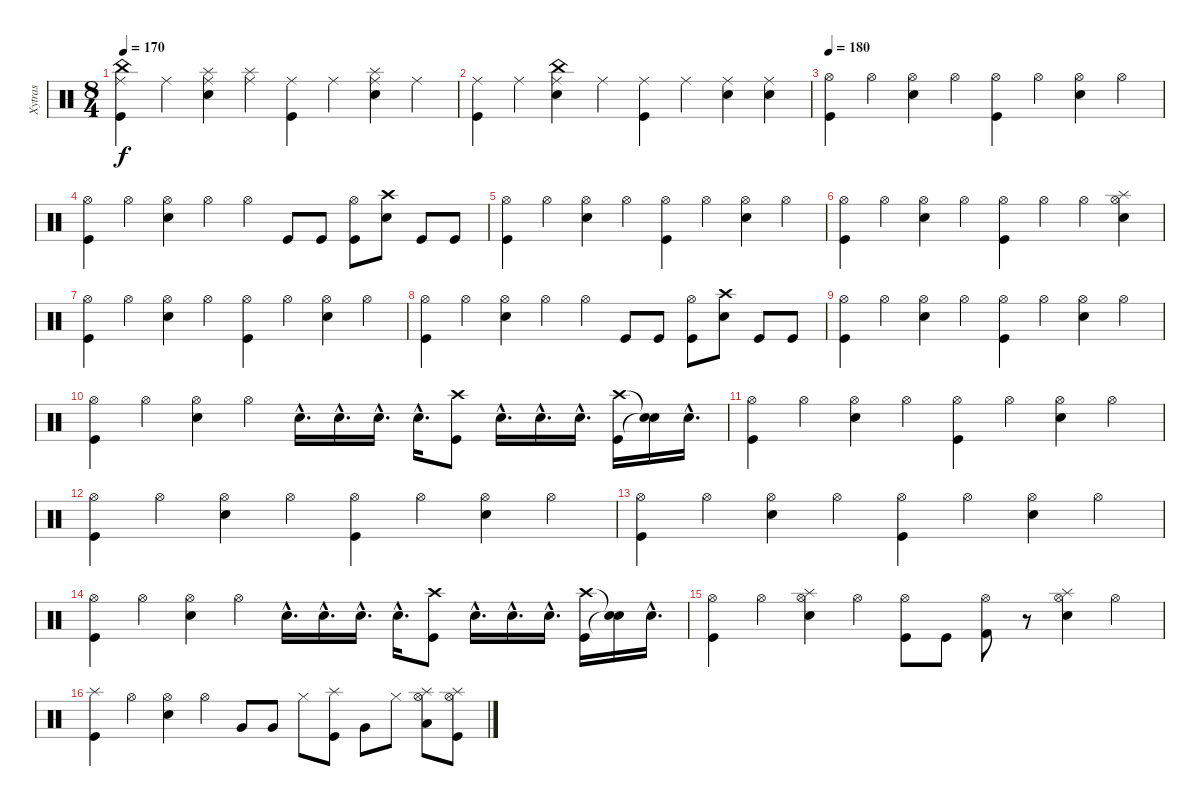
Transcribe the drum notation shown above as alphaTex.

\track ("Xytras" "Xytras") {instrument percussion}
\staff {score}
\articulation defaults
\ts (8 4)
\tempo 170
\clef neutral
\ks c
("Ride (middle)" "Kick (hit)" "China (hit)").4{dy f} "Ride (middle)".4 ("Ride (middle)" "Electric Snare (hit)" "Splash (hit)").4 ("Ride (middle)" "Splash (hit)").4 ("Ride (middle)" "Kick (hit)").4 "Ride (middle)".4 ("Ride (middle)" "Electric Snare (hit)" "Splash (hit)").4 "Ride (middle)".4 |
("Ride (middle)" "Kick (hit)").4 "Ride (middle)".4 ("Ride (middle)" "Electric Snare (hit)" "China (hit)").4 "Ride (middle)".4 ("Ride (middle)" "Kick (hit)").4 "Ride (middle)".4 ("Ride (middle)" "Electric Snare (hit)").4 ("Ride (middle)" "Electric Snare (hit)").4 |
\tempo 180
("Hi-Hat (open)" "Kick (hit)").4 "Hi-Hat (open)".4 ("Hi-Hat (open)" "Electric Snare (hit)").4 "Hi-Hat (open)".4 ("Hi-Hat (open)" "Kick (hit)").4 "Hi-Hat (open)".4 ("Hi-Hat (open)" "Electric Snare (hit)").4 "Hi-Hat (open)".4 |
("Hi-Hat (open)" "Kick (hit)").4 "Hi-Hat (open)".4 ("Hi-Hat (open)" "Electric Snare (hit)").4 "Hi-Hat (open)".4 "Hi-Hat (open)".4 "Kick (hit)".8 "Kick (hit)".8 ("Kick (hit)" "Hi-Hat (open)").8 ("Electric Snare (hit)" "Crash high (hit)").8 "Kick (hit)".8 "Kick (hit)".8 |
("Hi-Hat (open)" "Kick (hit)").4 "Hi-Hat (open)".4 ("Hi-Hat (open)" "Electric Snare (hit)").4 "Hi-Hat (open)".4 ("Hi-Hat (open)" "Kick (hit)").4 "Hi-Hat (open)".4 ("Hi-Hat (open)" "Electric Snare (hit)").4 "Hi-Hat (open)".4 |
("Hi-Hat (open)" "Kick (hit)").4 "Hi-Hat (open)".4 ("Hi-Hat (open)" "Electric Snare (hit)").4 "Hi-Hat (open)".4 ("Hi-Hat (open)" "Kick (hit)").4 "Hi-Hat (open)".4 "Hi-Hat (open)".4 ("Hi-Hat (open)" "Splash (hit)" "Electric Snare (hit)").4 |
("Hi-Hat (open)" "Kick (hit)").4 "Hi-Hat (open)".4 ("Hi-Hat (open)" "Electric Snare (hit)").4 "Hi-Hat (open)".4 ("Hi-Hat (open)" "Kick (hit)").4 "Hi-Hat (open)".4 ("Hi-Hat (open)" "Electric Snare (hit)").4 "Hi-Hat (open)".4 |
("Hi-Hat (open)" "Kick (hit)").4 "Hi-Hat (open)".4 ("Hi-Hat (open)" "Electric Snare (hit)").4 "Hi-Hat (open)".4 "Hi-Hat (open)".4 "Kick (hit)".8 "Kick (hit)".8 ("Kick (hit)" "Hi-Hat (open)").8 ("Electric Snare (hit)" "Crash high (hit)").8 "Kick (hit)".8 "Kick (hit)".8 |
("Hi-Hat (open)" "Kick (hit)").4 "Hi-Hat (open)".4 ("Hi-Hat (open)" "Electric Snare (hit)").4 "Hi-Hat (open)".4 ("Hi-Hat (open)" "Kick (hit)").4 "Hi-Hat (open)".4 ("Hi-Hat (open)" "Electric Snare (hit)").4 "Hi-Hat (open)".4 |
("Hi-Hat (open)" "Kick (hit)").4 "Hi-Hat (open)".4 ("Hi-Hat (open)" "Electric Snare (hit)").4 "Hi-Hat (open)".4 "Electric Snare (hit)"{hac}.16{d} "Electric Snare (hit)"{hac}.16{d} "Electric Snare (hit)"{hac}.16{d} "Electric Snare (hit)"{hac}.16{d} ("Crash high (hit)" "Kick (hit)").8 "Electric Snare (hit)"{hac}.16{d} "Electric Snare (hit)"{hac}.16{d} "Electric Snare (hit)"{hac}.16{d} ("Kick (hit)" "Crash high (hit)").16 ("Electric Snare (hit)"{t} "Snare (hit)"{t}).16 "Electric Snare (hit)"{hac}.16{d} |
("Hi-Hat (open)" "Kick (hit)").4 "Hi-Hat (open)".4 ("Hi-Hat (open)" "Electric Snare (hit)").4 "Hi-Hat (open)".4 ("Hi-Hat (open)" "Kick (hit)").4 "Hi-Hat (open)".4 ("Hi-Hat (open)" "Electric Snare (hit)").4 "Hi-Hat (open)".4 |
("Hi-Hat (open)" "Kick (hit)").4 "Hi-Hat (open)".4 ("Hi-Hat (open)" "Electric Snare (hit)").4 "Hi-Hat (open)".4 ("Hi-Hat (open)" "Kick (hit)").4 "Hi-Hat (open)".4 ("Hi-Hat (open)" "Electric Snare (hit)").4 "Hi-Hat (open)".4 |
("Hi-Hat (open)" "Kick (hit)").4 "Hi-Hat (open)".4 ("Hi-Hat (open)" "Electric Snare (hit)").4 "Hi-Hat (open)".4 ("Hi-Hat (open)" "Kick (hit)").4 "Hi-Hat (open)".4 ("Hi-Hat (open)" "Electric Snare (hit)").4 "Hi-Hat (open)".4 |
("Hi-Hat (open)" "Kick (hit)").4 "Hi-Hat (open)".4 ("Hi-Hat (open)" "Electric Snare (hit)").4 "Hi-Hat (open)".4 "Electric Snare (hit)"{hac}.16{d} "Electric Snare (hit)"{hac}.16{d} "Electric Snare (hit)"{hac}.16{d} "Electric Snare (hit)"{hac}.16{d} ("Crash high (hit)" "Kick (hit)").8 "Electric Snare (hit)"{hac}.16{d} "Electric Snare (hit)"{hac}.16{d} "Electric Snare (hit)"{hac}.16{d} ("Kick (hit)" "Crash high (hit)").16 ("Electric Snare (hit)"{t} "Snare (hit)"{t}).16 "Electric Snare (hit)"{hac}.16{d} |
("Hi-Hat (open)" "Kick (hit)").4 "Hi-Hat (open)".4 ("Hi-Hat (open)" "Electric Snare (hit)" "Splash (hit)").4 "Hi-Hat (open)".4 ("Hi-Hat (open)" "Kick (hit)").8 "Kick (hit)".8 ("Hi-Hat (open)" "Kick (hit) 2").8 r.8 ("Electric Snare (hit)" "Splash (hit)" "Hi-Hat (open)").4 "Hi-Hat (open)".4 |
("Splash (hit)" "Kick (hit)").4 "Hi-Hat (open)".4 ("Hi-Hat (open)" "Electric Snare (hit)").4 "Hi-Hat (open)".4 "Very Low Tom (hit)".8 "Very Low Tom (hit)".8 "Hi-Hat (closed)".8 ("Kick (hit)" "Splash (hit)").8 "Very Low Tom (hit)".8 "Hi-Hat (closed)".8 ("Low Floor Tom (hit)" "Splash (hit)" "Hi-Hat (open)").8 ("Kick (hit)" "Hi-Hat (open)" "Splash (hit)").8
